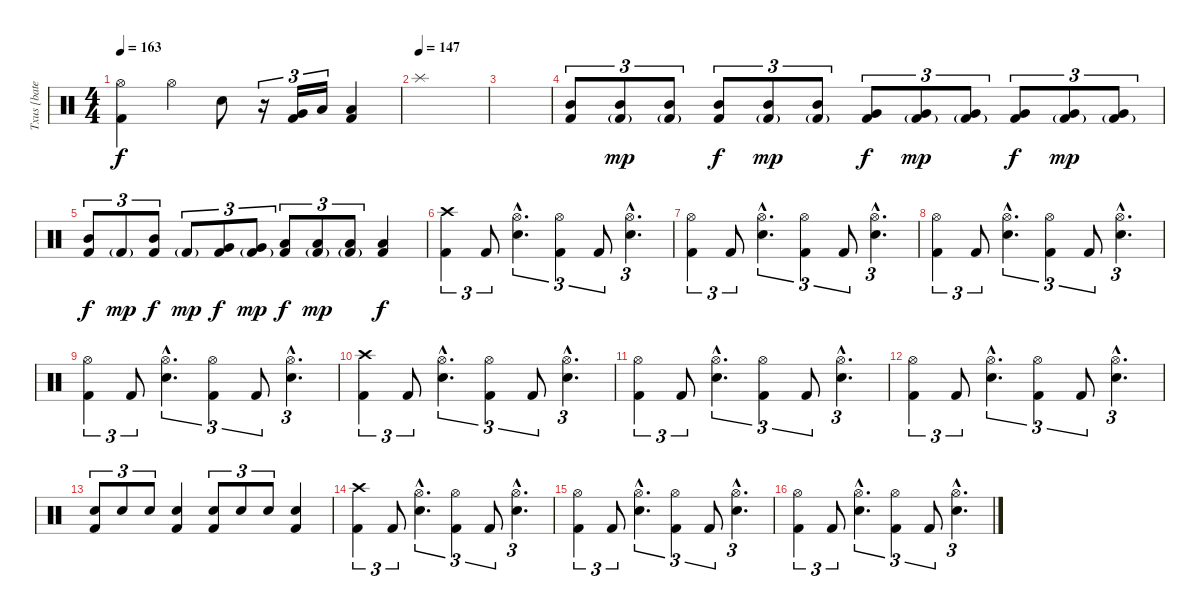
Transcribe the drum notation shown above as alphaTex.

\track ("Txus [bateria]" "Txus [bate") {instrument percussion}
\staff {score}
\articulation defaults
\ts (4 4)
\tempo 163
\clef neutral
\ks c
("Hi-Hat (open)" "Kick (hit) 2").4{dy f} "Hi-Hat (open)".4 "Snare (hit) 2".8 r.16{tu (3 2)} ("Very Low Tom (hit)" "Kick (hit) 2").16{tu (3 2)} "Low Tom (hit)".16{tu (3 2)} ("Low Floor Tom (hit)" "Kick (hit) 2").4 |
\tempo (147)
"Splash (hit)".1 |
|
("Mid Tom (hit)" "Kick (hit) 2").8{tu (3 2)} ("Mid Tom (hit)" "Kick (hit) 2"{g}).8{tu (3 2) dy mp} ("Mid Tom (hit)" "Kick (hit) 2"{g}).8{tu (3 2)} ("Mid Tom (hit)" "Kick (hit) 2").8{tu (3 2) dy f} ("Mid Tom (hit)" "Kick (hit) 2"{g}).8{tu (3 2) dy mp} ("Mid Tom (hit)" "Kick (hit) 2"{g}).8{tu (3 2)} ("Very Low Tom (hit)" "Kick (hit) 2").8{tu (3 2) dy f} ("Very Low Tom (hit)" "Kick (hit) 2"{g}).8{tu (3 2) dy mp} ("Very Low Tom (hit)" "Kick (hit) 2"{g}).8{tu (3 2)} ("Very Low Tom (hit)" "Kick (hit) 2").8{tu (3 2) dy f} ("Very Low Tom (hit)" "Kick (hit) 2"{g}).8{tu (3 2) dy mp} ("Very Low Tom (hit)" "Kick (hit) 2"{g}).8{tu (3 2)} |
("Mid Tom (hit)" "Kick (hit) 2").8{tu (3 2) dy f} "Kick (hit) 2"{g}.8{tu (3 2) dy mp} ("Mid Tom (hit)" "Kick (hit) 2").8{tu (3 2) dy f} "Kick (hit) 2"{g}.8{tu (3 2) dy mp} ("Very Low Tom (hit)" "Kick (hit) 2").8{tu (3 2) dy f} ("Very Low Tom (hit)" "Kick (hit) 2"{g}).8{tu (3 2) dy mp} ("Low Floor Tom (hit)" "Kick (hit) 2").8{tu (3 2) dy f} ("Low Floor Tom (hit)" "Kick (hit) 2"{g}).8{tu (3 2) dy mp} ("Low Floor Tom (hit)" "Kick (hit) 2"{g}).8{tu (3 2)} ("Low Floor Tom (hit)" "Kick (hit) 2").4{dy f} |
("Crash high (hit)" "Kick (hit) 2").4{tu (3 2)} "Kick (hit) 2".8{tu (3 2)} ("Hi-Hat (open)"{hac} "Snare (hit) 2"{hac}).4{d tu (3 2)} ("Hi-Hat (open)" "Kick (hit) 2").4{tu (3 2)} "Kick (hit) 2".8{tu (3 2)} ("Hi-Hat (open)"{hac} "Snare (hit) 2"{hac}).4{d tu (3 2)} |
("Hi-Hat (open)" "Kick (hit) 2").4{tu (3 2)} "Kick (hit) 2".8{tu (3 2)} ("Hi-Hat (open)"{hac} "Snare (hit) 2"{hac}).4{d tu (3 2)} ("Hi-Hat (open)" "Kick (hit) 2").4{tu (3 2)} "Kick (hit) 2".8{tu (3 2)} ("Hi-Hat (open)"{hac} "Snare (hit) 2"{hac}).4{d tu (3 2)} |
("Hi-Hat (open)" "Kick (hit) 2").4{tu (3 2)} "Kick (hit) 2".8{tu (3 2)} ("Hi-Hat (open)"{hac} "Snare (hit) 2"{hac}).4{d tu (3 2)} ("Hi-Hat (open)" "Kick (hit) 2").4{tu (3 2)} "Kick (hit) 2".8{tu (3 2)} ("Hi-Hat (open)"{hac} "Snare (hit) 2"{hac}).4{d tu (3 2)} |
("Hi-Hat (open)" "Kick (hit) 2").4{tu (3 2)} "Kick (hit) 2".8{tu (3 2)} ("Hi-Hat (open)"{hac} "Snare (hit) 2"{hac}).4{d tu (3 2)} ("Hi-Hat (open)" "Kick (hit) 2").4{tu (3 2)} "Kick (hit) 2".8{tu (3 2)} ("Hi-Hat (open)"{hac} "Snare (hit) 2"{hac}).4{d tu (3 2)} |
("Crash high (hit)" "Kick (hit) 2").4{tu (3 2)} "Kick (hit) 2".8{tu (3 2)} ("Hi-Hat (open)"{hac} "Snare (hit) 2"{hac}).4{d tu (3 2)} ("Hi-Hat (open)" "Kick (hit) 2").4{tu (3 2)} "Kick (hit) 2".8{tu (3 2)} ("Hi-Hat (open)"{hac} "Snare (hit) 2"{hac}).4{d tu (3 2)} |
("Hi-Hat (open)" "Kick (hit) 2").4{tu (3 2)} "Kick (hit) 2".8{tu (3 2)} ("Hi-Hat (open)"{hac} "Snare (hit) 2"{hac}).4{d tu (3 2)} ("Hi-Hat (open)" "Kick (hit) 2").4{tu (3 2)} "Kick (hit) 2".8{tu (3 2)} ("Hi-Hat (open)"{hac} "Snare (hit) 2"{hac}).4{d tu (3 2)} |
("Hi-Hat (open)" "Kick (hit) 2").4{tu (3 2)} "Kick (hit) 2".8{tu (3 2)} ("Hi-Hat (open)"{hac} "Snare (hit) 2"{hac}).4{d tu (3 2)} ("Hi-Hat (open)" "Kick (hit) 2").4{tu (3 2)} "Kick (hit) 2".8{tu (3 2)} ("Hi-Hat (open)"{hac} "Snare (hit) 2"{hac}).4{d tu (3 2)} |
("Snare (hit) 2" "Kick (hit) 2").8{tu (3 2)} "Snare (hit) 2".8{tu (3 2)} "Snare (hit) 2".8{tu (3 2)} ("Snare (hit) 2" "Kick (hit) 2").4 ("Snare (hit) 2" "Kick (hit) 2").8{tu (3 2)} "Snare (hit) 2".8{tu (3 2)} "Snare (hit) 2".8{tu (3 2)} ("Snare (hit) 2" "Kick (hit) 2").4 |
("Crash high (hit)" "Kick (hit) 2").4{tu (3 2)} "Kick (hit) 2".8{tu (3 2)} ("Hi-Hat (open)"{hac} "Snare (hit) 2"{hac}).4{d tu (3 2)} ("Hi-Hat (open)" "Kick (hit) 2").4{tu (3 2)} "Kick (hit) 2".8{tu (3 2)} ("Hi-Hat (open)"{hac} "Snare (hit) 2"{hac}).4{d tu (3 2)} |
("Hi-Hat (open)" "Kick (hit) 2").4{tu (3 2)} "Kick (hit) 2".8{tu (3 2)} ("Hi-Hat (open)"{hac} "Snare (hit) 2"{hac}).4{d tu (3 2)} ("Hi-Hat (open)" "Kick (hit) 2").4{tu (3 2)} "Kick (hit) 2".8{tu (3 2)} ("Hi-Hat (open)"{hac} "Snare (hit) 2"{hac}).4{d tu (3 2)} |
("Hi-Hat (open)" "Kick (hit) 2").4{tu (3 2)} "Kick (hit) 2".8{tu (3 2)} ("Hi-Hat (open)"{hac} "Snare (hit) 2"{hac}).4{d tu (3 2)} ("Hi-Hat (open)" "Kick (hit) 2").4{tu (3 2)} "Kick (hit) 2".8{tu (3 2)} ("Hi-Hat (open)"{hac} "Snare (hit) 2"{hac}).4{d tu (3 2)}
